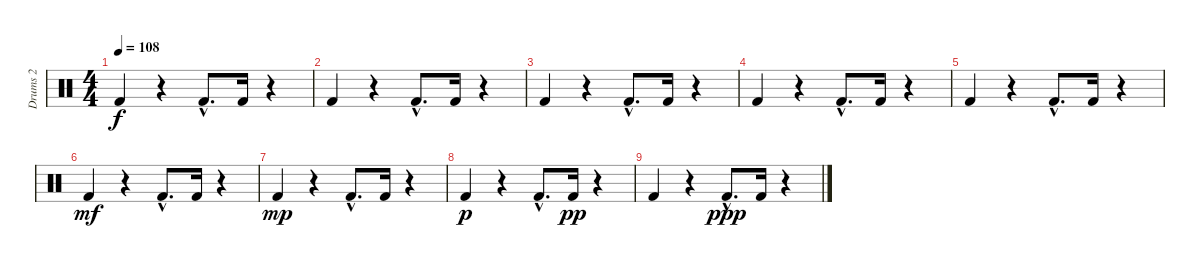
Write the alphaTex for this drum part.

\track ("Drums 2" "Drums 2") {instrument percussion}
\staff {score}
\articulation defaults
\ts (4 4)
\tempo 108
\clef neutral
\ks c "Kick (hit) 2".4{dy f}
r.4 "Kick (hit) 2"{hac}.8{d} "Kick (hit) 2".16 r.4 |
"Kick (hit) 2".4 r.4 "Kick (hit) 2"{hac}.8{d} "Kick (hit) 2".16 r.4 |
"Kick (hit) 2".4 r.4 "Kick (hit) 2"{hac}.8{d} "Kick (hit) 2".16 r.4 |
"Kick (hit) 2".4 r.4 "Kick (hit) 2"{hac}.8{d} "Kick (hit) 2".16 r.4 |
"Kick (hit) 2".4 r.4 "Kick (hit) 2"{hac}.8{d} "Kick (hit) 2".16 r.4 |
"Kick (hit) 2".4{dy mf} r.4 "Kick (hit) 2"{hac}.8{d} "Kick (hit) 2".16 r.4 |
"Kick (hit) 2".4{dy mp} r.4 "Kick (hit) 2"{hac}.8{d} "Kick (hit) 2".16 r.4 |
"Kick (hit) 2".4{dy p} r.4 "Kick (hit) 2"{hac}.8{d} "Kick (hit) 2".16{dy pp} r.4 |
"Kick (hit) 2".4 r.4 "Kick (hit) 2"{hac}.8{d dy ppp} "Kick (hit) 2".16 r.4
